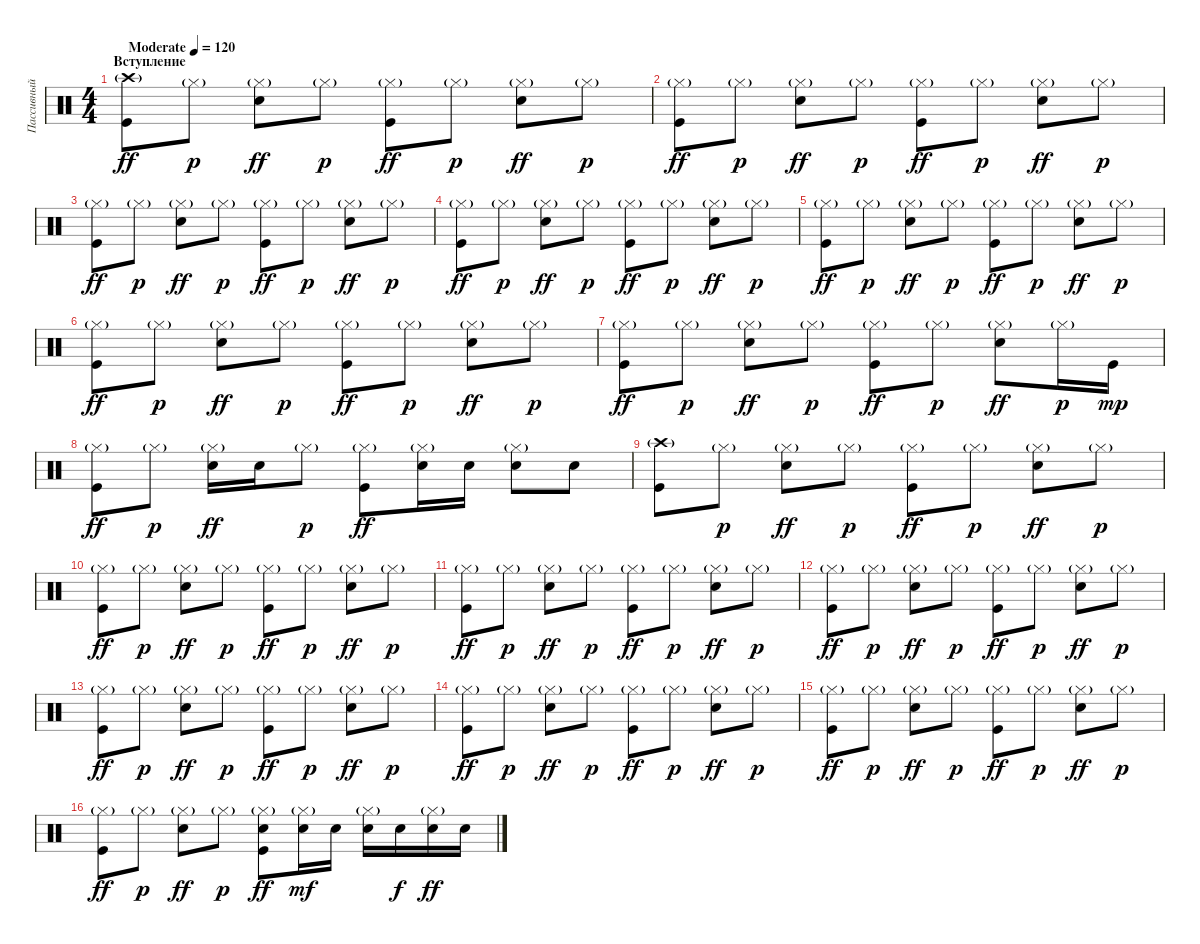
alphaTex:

\track ("Пассивный ударник" "Пассивный ") {instrument percussion}
\staff {score}
\articulation defaults
\ts (4 4)
\section ("" "Вступление")
\tempo (120 "Moderate")
\clef neutral
\ks c
("Crash high (hit)"{g} "Kick (hit)").8{dy ff} "Hi-Hat (closed)"{g}.8{dy p} ("Hi-Hat (closed)"{g} "Electric Snare (hit)").8{dy ff} "Hi-Hat (closed)"{g}.8{dy p} ("Hi-Hat (closed)"{g} "Kick (hit)").8{dy ff} "Hi-Hat (closed)"{g}.8{dy p} ("Hi-Hat (closed)"{g} "Electric Snare (hit)").8{dy ff} "Hi-Hat (closed)"{g}.8{dy p} |
("Hi-Hat (closed)"{g} "Kick (hit)").8{dy ff} "Hi-Hat (closed)"{g}.8{dy p} ("Hi-Hat (closed)"{g} "Electric Snare (hit)").8{dy ff} "Hi-Hat (closed)"{g}.8{dy p} ("Hi-Hat (closed)"{g} "Kick (hit)").8{dy ff} "Hi-Hat (closed)"{g}.8{dy p} ("Hi-Hat (closed)"{g} "Electric Snare (hit)").8{dy ff} "Hi-Hat (closed)"{g}.8{dy p} |
("Hi-Hat (closed)"{g} "Kick (hit)").8{dy ff} "Hi-Hat (closed)"{g}.8{dy p} ("Hi-Hat (closed)"{g} "Electric Snare (hit)").8{dy ff} "Hi-Hat (closed)"{g}.8{dy p} ("Hi-Hat (closed)"{g} "Kick (hit)").8{dy ff} "Hi-Hat (closed)"{g}.8{dy p} ("Hi-Hat (closed)"{g} "Electric Snare (hit)").8{dy ff} "Hi-Hat (closed)"{g}.8{dy p} |
("Hi-Hat (closed)"{g} "Kick (hit)").8{dy ff} "Hi-Hat (closed)"{g}.8{dy p} ("Hi-Hat (closed)"{g} "Electric Snare (hit)").8{dy ff} "Hi-Hat (closed)"{g}.8{dy p} ("Hi-Hat (closed)"{g} "Kick (hit)").8{dy ff} "Hi-Hat (closed)"{g}.8{dy p} ("Hi-Hat (closed)"{g} "Electric Snare (hit)").8{dy ff} "Hi-Hat (closed)"{g}.8{dy p} |
("Hi-Hat (closed)"{g} "Kick (hit)").8{dy ff} "Hi-Hat (closed)"{g}.8{dy p} ("Hi-Hat (closed)"{g} "Electric Snare (hit)").8{dy ff} "Hi-Hat (closed)"{g}.8{dy p} ("Hi-Hat (closed)"{g} "Kick (hit)").8{dy ff} "Hi-Hat (closed)"{g}.8{dy p} ("Hi-Hat (closed)"{g} "Electric Snare (hit)").8{dy ff} "Hi-Hat (closed)"{g}.8{dy p} |
("Hi-Hat (closed)"{g} "Kick (hit)").8{dy ff} "Hi-Hat (closed)"{g}.8{dy p} ("Hi-Hat (closed)"{g} "Electric Snare (hit)").8{dy ff} "Hi-Hat (closed)"{g}.8{dy p} ("Hi-Hat (closed)"{g} "Kick (hit)").8{dy ff} "Hi-Hat (closed)"{g}.8{dy p} ("Hi-Hat (closed)"{g} "Electric Snare (hit)").8{dy ff} "Hi-Hat (closed)"{g}.8{dy p} |
("Hi-Hat (closed)"{g} "Kick (hit)").8{dy ff} "Hi-Hat (closed)"{g}.8{dy p} ("Hi-Hat (closed)"{g} "Electric Snare (hit)").8{dy ff} "Hi-Hat (closed)"{g}.8{dy p} ("Hi-Hat (closed)"{g} "Kick (hit)").8{dy ff} "Hi-Hat (closed)"{g}.8{dy p} ("Hi-Hat (closed)"{g} "Electric Snare (hit)").8{dy ff} "Hi-Hat (closed)"{g}.16{dy p} "Kick (hit)".16{dy mp} |
("Hi-Hat (closed)"{g} "Kick (hit)").8{dy ff} "Hi-Hat (closed)"{g}.8{dy p} ("Hi-Hat (closed)"{g} "Electric Snare (hit)").16{dy ff} "Electric Snare (hit)".16 "Hi-Hat (closed)"{g}.8{dy p} ("Hi-Hat (closed)"{g} "Kick (hit)").8{dy ff} ("Hi-Hat (closed)"{g} "Electric Snare (hit)").16 "Electric Snare (hit)".16 ("Hi-Hat (closed)"{g} "Electric Snare (hit)").8 "Electric Snare (hit)".8 |
("Crash high (hit)"{g} "Kick (hit)").8 "Hi-Hat (closed)"{g}.8{dy p} ("Hi-Hat (closed)"{g} "Electric Snare (hit)").8{dy ff} "Hi-Hat (closed)"{g}.8{dy p} ("Hi-Hat (closed)"{g} "Kick (hit)").8{dy ff} "Hi-Hat (closed)"{g}.8{dy p} ("Hi-Hat (closed)"{g} "Electric Snare (hit)").8{dy ff} "Hi-Hat (closed)"{g}.8{dy p} |
("Hi-Hat (closed)"{g} "Kick (hit)").8{dy ff} "Hi-Hat (closed)"{g}.8{dy p} ("Hi-Hat (closed)"{g} "Electric Snare (hit)").8{dy ff} "Hi-Hat (closed)"{g}.8{dy p} ("Hi-Hat (closed)"{g} "Kick (hit)").8{dy ff} "Hi-Hat (closed)"{g}.8{dy p} ("Hi-Hat (closed)"{g} "Electric Snare (hit)").8{dy ff} "Hi-Hat (closed)"{g}.8{dy p} |
("Hi-Hat (closed)"{g} "Kick (hit)").8{dy ff} "Hi-Hat (closed)"{g}.8{dy p} ("Hi-Hat (closed)"{g} "Electric Snare (hit)").8{dy ff} "Hi-Hat (closed)"{g}.8{dy p} ("Hi-Hat (closed)"{g} "Kick (hit)").8{dy ff} "Hi-Hat (closed)"{g}.8{dy p} ("Hi-Hat (closed)"{g} "Electric Snare (hit)").8{dy ff} "Hi-Hat (closed)"{g}.8{dy p} |
("Hi-Hat (closed)"{g} "Kick (hit)").8{dy ff} "Hi-Hat (closed)"{g}.8{dy p} ("Hi-Hat (closed)"{g} "Electric Snare (hit)").8{dy ff} "Hi-Hat (closed)"{g}.8{dy p} ("Hi-Hat (closed)"{g} "Kick (hit)").8{dy ff} "Hi-Hat (closed)"{g}.8{dy p} ("Hi-Hat (closed)"{g} "Electric Snare (hit)").8{dy ff} "Hi-Hat (closed)"{g}.8{dy p} |
("Hi-Hat (closed)"{g} "Kick (hit)").8{dy ff} "Hi-Hat (closed)"{g}.8{dy p} ("Hi-Hat (closed)"{g} "Electric Snare (hit)").8{dy ff} "Hi-Hat (closed)"{g}.8{dy p} ("Hi-Hat (closed)"{g} "Kick (hit)").8{dy ff} "Hi-Hat (closed)"{g}.8{dy p} ("Hi-Hat (closed)"{g} "Electric Snare (hit)").8{dy ff} "Hi-Hat (closed)"{g}.8{dy p} |
("Hi-Hat (closed)"{g} "Kick (hit)").8{dy ff} "Hi-Hat (closed)"{g}.8{dy p} ("Hi-Hat (closed)"{g} "Electric Snare (hit)").8{dy ff} "Hi-Hat (closed)"{g}.8{dy p} ("Hi-Hat (closed)"{g} "Kick (hit)").8{dy ff} "Hi-Hat (closed)"{g}.8{dy p} ("Hi-Hat (closed)"{g} "Electric Snare (hit)").8{dy ff} "Hi-Hat (closed)"{g}.8{dy p} |
("Hi-Hat (closed)"{g} "Kick (hit)").8{dy ff} "Hi-Hat (closed)"{g}.8{dy p} ("Hi-Hat (closed)"{g} "Electric Snare (hit)").8{dy ff} "Hi-Hat (closed)"{g}.8{dy p} ("Hi-Hat (closed)"{g} "Kick (hit)").8{dy ff} "Hi-Hat (closed)"{g}.8{dy p} ("Hi-Hat (closed)"{g} "Electric Snare (hit)").8{dy ff} "Hi-Hat (closed)"{g}.8{dy p} |
("Hi-Hat (closed)"{g} "Kick (hit)").8{dy ff} "Hi-Hat (closed)"{g}.8{dy p} ("Hi-Hat (closed)"{g} "Electric Snare (hit)").8{dy ff} "Hi-Hat (closed)"{g}.8{dy p} ("Hi-Hat (closed)"{g} "Electric Snare (hit)" "Kick (hit)").8{dy ff} ("Hi-Hat (closed)"{g} "Electric Snare (hit)").16{dy mf} "Electric Snare (hit)".16 ("Hi-Hat (closed)"{g} "Electric Snare (hit)").16 "Electric Snare (hit)".16{dy f} ("Hi-Hat (closed)"{g} "Electric Snare (hit)").16{dy ff} "Electric Snare (hit)".16
